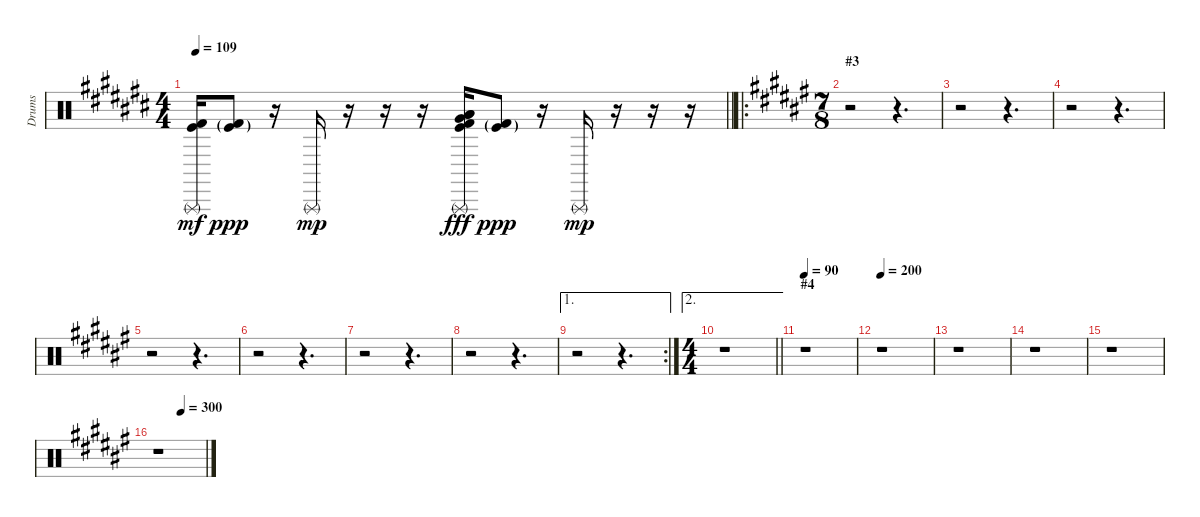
\track ("Drums" "Drums") {instrument percussion}
\staff {score}
\articulation defaults
\ts (4 4)
\tempo 109
\clef neutral
\barLineRight lightlight
\ks c#
("Kick (hit) 2" "Kick (hit)" "Triangle (rnute)").16{dy mf} ("Kick (hit) 2"{g} "Kick (hit)"{g}).8{dy ppp} r.16 "Triangle (rnute)".16{dy mp} r.16 r.16 r.16 ("Kick (hit) 2" "Kick (hit)" "Low Floor Tom (hit)" "Low Tom (hit)" "Triangle (rnute)" "Very Low Tom (hit)").16{dy fff} ("Kick (hit) 2"{g} "Kick (hit)"{g}).8{dy ppp} r.16 "Triangle (rnute)".16{dy mp} r.16 r.16 r.16 |
\ro
\ts (7 8)
\section ("" "#3")
\ks f#
r.2 r.4{d} |
r.2 r.4{d} |
r.2 r.4{d} |
r.2 r.4{d} |
r.2 r.4{d} |
r.2 r.4{d} |
r.2 r.4{d} |
\ae 1
\rc 2
r.2 r.4{d} |
\ae 2
\ts (4 4)
\barLineRight lightlight
r.1 |
\section ("" "#4")
\tempo 90
r.1 |
\tempo 200
r.1 |
r.1 |
r.1 |
r.1 |
\tempo (300 0.5)
r.1
